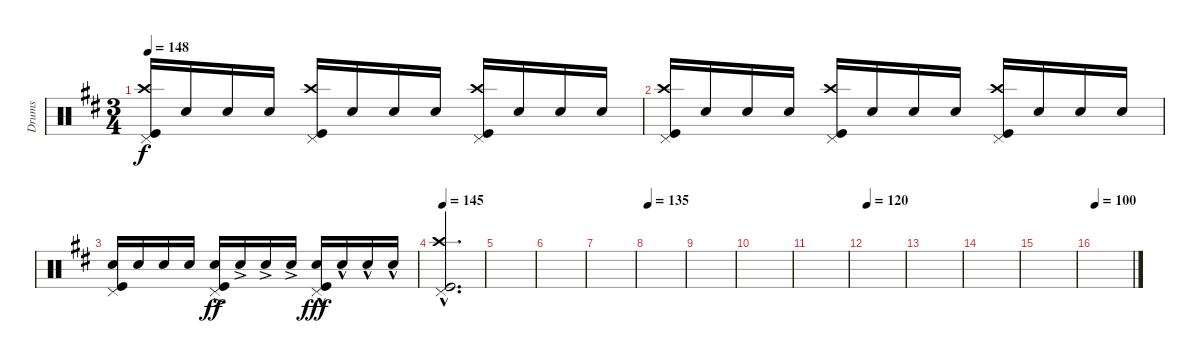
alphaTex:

\track ("Drums" "Drums") {instrument percussion}
\staff {score}
\articulation defaults
\ts (3 4)
\tempo 148
\clef neutral
\ks bminor
("Pedal Hi-Hat (hit)" "Crash high (hit)" "Kick (hit)").16{dy f} "Snare (hit) 2".16 "Snare (hit) 2".16 "Snare (hit) 2".16 ("Pedal Hi-Hat (hit)" "Crash high (hit)" "Kick (hit)").16 "Snare (hit) 2".16 "Snare (hit) 2".16 "Snare (hit) 2".16 ("Pedal Hi-Hat (hit)" "Crash high (hit)" "Kick (hit)").16 "Snare (hit) 2".16 "Snare (hit) 2".16 "Snare (hit) 2".16 |
("Pedal Hi-Hat (hit)" "Crash high (hit)" "Kick (hit)").16 "Snare (hit) 2".16 "Snare (hit) 2".16 "Snare (hit) 2".16 ("Pedal Hi-Hat (hit)" "Crash high (hit)" "Kick (hit)").16 "Snare (hit) 2".16 "Snare (hit) 2".16 "Snare (hit) 2".16 ("Pedal Hi-Hat (hit)" "Crash high (hit)" "Kick (hit)").16 "Snare (hit) 2".16 "Snare (hit) 2".16 "Snare (hit) 2".16 |
("Pedal Hi-Hat (hit)" "Snare (hit) 2" "Kick (hit)").16 "Snare (hit) 2".16 "Snare (hit) 2".16 "Snare (hit) 2".16 ("Pedal Hi-Hat (hit)"{ac} "Snare (hit) 2"{ac} "Kick (hit)"{ac}).16{dy ff} "Snare (hit) 2"{ac}.16 "Snare (hit) 2"{ac}.16 "Snare (hit) 2"{ac}.16 ("Pedal Hi-Hat (hit)"{hac} "Snare (hit) 2"{hac} "Kick (hit)"{hac}).16{dy fff} "Snare (hit) 2"{hac}.16 "Snare (hit) 2"{hac}.16 "Snare (hit) 2"{hac}.16 |
\tempo 145
("Pedal Hi-Hat (hit)"{hac} "Crash high (hit)"{hac} "Kick (hit)"{hac}).2{d} |
|
|
|
\tempo 135
|
|
|
|
\tempo 120
|
|
|
|
\tempo 100
